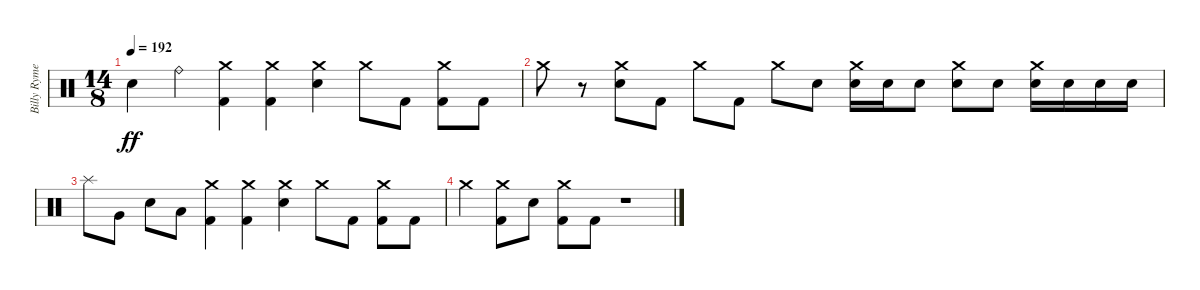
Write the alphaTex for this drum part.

\track ("Billy Rymer" "Billy Ryme") {instrument percussion}
\staff {score}
\articulation defaults
\ts (14 8)
\tempo 192
\clef neutral
\ks c "Electric Snare (hit)".4{dy ff} "Ride (bell)".4
("Crash medium (hit)" "Kick (hit) 2").4 ("Crash medium (hit)" "Kick (hit) 2").4 ("Crash medium (hit)" "Electric Snare (hit)").4 "Crash medium (hit)".8 "Kick (hit) 2".8 ("Crash medium (hit)" "Kick (hit) 2").8 "Kick (hit) 2".8 |
"Crash medium (hit)".8 r.8 ("Crash medium (hit)" "Electric Snare (hit)").8 "Kick (hit) 2".8 "Crash medium (hit)".8 "Kick (hit) 2".8 "Crash medium (hit)".8 "Electric Snare (hit)".8 ("Crash medium (hit)" "Electric Snare (hit)").16 "Electric Snare (hit)".16 "Electric Snare (hit)".8 ("Crash medium (hit)" "Electric Snare (hit)").8 "Electric Snare (hit)".8 ("Crash medium (hit)" "Electric Snare (hit)").16 "Electric Snare (hit)".16 "Electric Snare (hit)".16 "Electric Snare (hit)".16 |
"Splash (hit)".8 "Very Low Tom (hit)".8 "Electric Snare (hit)".8 "Low Floor Tom (hit)".8 ("Crash medium (hit)" "Kick (hit) 2").4 ("Crash medium (hit)" "Kick (hit) 2").4 ("Crash medium (hit)" "Electric Snare (hit)").4 "Crash medium (hit)".8 "Kick (hit) 2".8 ("Crash medium (hit)" "Kick (hit) 2").8 "Kick (hit) 2".8 |
"Crash medium (hit)".4 ("Crash medium (hit)" "Kick (hit) 2").8 "Electric Snare (hit)".8 ("Crash medium (hit)" "Kick (hit) 2").8 "Kick (hit) 2".8 r.1
